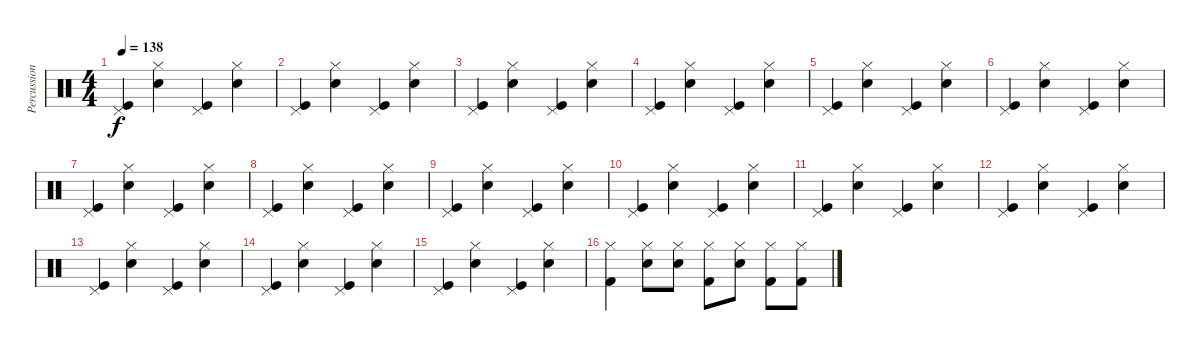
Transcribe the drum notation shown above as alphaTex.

\track ("Percussions" "Percussion") {instrument percussion}
\staff {score}
\articulation defaults
\ts (4 4)
\tempo 138
\clef neutral
\ks c
("Pedal Hi-Hat (hit)" "Kick (hit)").4{dy f} ("Hi-Hat (closed)" "Snare (hit) 2").4 ("Pedal Hi-Hat (hit)" "Kick (hit)").4 ("Hi-Hat (closed)" "Snare (hit) 2").4 |
("Pedal Hi-Hat (hit)" "Kick (hit)").4 ("Hi-Hat (closed)" "Snare (hit) 2").4 ("Pedal Hi-Hat (hit)" "Kick (hit)").4 ("Hi-Hat (closed)" "Snare (hit) 2").4 |
("Pedal Hi-Hat (hit)" "Kick (hit)").4 ("Hi-Hat (closed)" "Snare (hit) 2").4 ("Pedal Hi-Hat (hit)" "Kick (hit)").4 ("Hi-Hat (closed)" "Snare (hit) 2").4 |
("Pedal Hi-Hat (hit)" "Kick (hit)").4 ("Hi-Hat (closed)" "Snare (hit) 2").4 ("Pedal Hi-Hat (hit)" "Kick (hit)").4 ("Hi-Hat (closed)" "Snare (hit) 2").4 |
("Pedal Hi-Hat (hit)" "Kick (hit)").4 ("Hi-Hat (closed)" "Snare (hit) 2").4 ("Pedal Hi-Hat (hit)" "Kick (hit)").4 ("Hi-Hat (closed)" "Snare (hit) 2").4 |
("Pedal Hi-Hat (hit)" "Kick (hit)").4 ("Hi-Hat (closed)" "Snare (hit) 2").4 ("Pedal Hi-Hat (hit)" "Kick (hit)").4 ("Hi-Hat (closed)" "Snare (hit) 2").4 |
("Pedal Hi-Hat (hit)" "Kick (hit)").4 ("Hi-Hat (closed)" "Snare (hit) 2").4 ("Pedal Hi-Hat (hit)" "Kick (hit)").4 ("Hi-Hat (closed)" "Snare (hit) 2").4 |
("Pedal Hi-Hat (hit)" "Kick (hit)").4 ("Hi-Hat (closed)" "Snare (hit) 2").4 ("Pedal Hi-Hat (hit)" "Kick (hit)").4 ("Hi-Hat (closed)" "Snare (hit) 2").4 |
("Pedal Hi-Hat (hit)" "Kick (hit)").4 ("Hi-Hat (closed)" "Snare (hit) 2").4 ("Pedal Hi-Hat (hit)" "Kick (hit)").4 ("Hi-Hat (closed)" "Snare (hit) 2").4 |
("Pedal Hi-Hat (hit)" "Kick (hit)").4 ("Hi-Hat (closed)" "Snare (hit) 2").4 ("Pedal Hi-Hat (hit)" "Kick (hit)").4 ("Hi-Hat (closed)" "Snare (hit) 2").4 |
("Pedal Hi-Hat (hit)" "Kick (hit)").4 ("Hi-Hat (closed)" "Snare (hit) 2").4 ("Pedal Hi-Hat (hit)" "Kick (hit)").4 ("Hi-Hat (closed)" "Snare (hit) 2").4 |
("Pedal Hi-Hat (hit)" "Kick (hit)").4 ("Hi-Hat (closed)" "Snare (hit) 2").4 ("Pedal Hi-Hat (hit)" "Kick (hit)").4 ("Hi-Hat (closed)" "Snare (hit) 2").4 |
("Pedal Hi-Hat (hit)" "Kick (hit)").4 ("Hi-Hat (closed)" "Snare (hit) 2").4 ("Pedal Hi-Hat (hit)" "Kick (hit)").4 ("Hi-Hat (closed)" "Snare (hit) 2").4 |
("Pedal Hi-Hat (hit)" "Kick (hit)").4 ("Hi-Hat (closed)" "Snare (hit) 2").4 ("Pedal Hi-Hat (hit)" "Kick (hit)").4 ("Hi-Hat (closed)" "Snare (hit) 2").4 |
("Pedal Hi-Hat (hit)" "Kick (hit)").4 ("Hi-Hat (closed)" "Snare (hit) 2").4 ("Pedal Hi-Hat (hit)" "Kick (hit)").4 ("Hi-Hat (closed)" "Snare (hit) 2").4 |
("Hi-Hat (closed)" "Kick (hit) 2").4 ("Hi-Hat (closed)" "Electric Snare (hit)").8 ("Hi-Hat (closed)" "Electric Snare (hit)").8 ("Hi-Hat (closed)" "Kick (hit) 2").8 ("Hi-Hat (closed)" "Electric Snare (hit)").8 ("Hi-Hat (closed)" "Kick (hit) 2").8 ("Hi-Hat (closed)" "Kick (hit) 2").8
